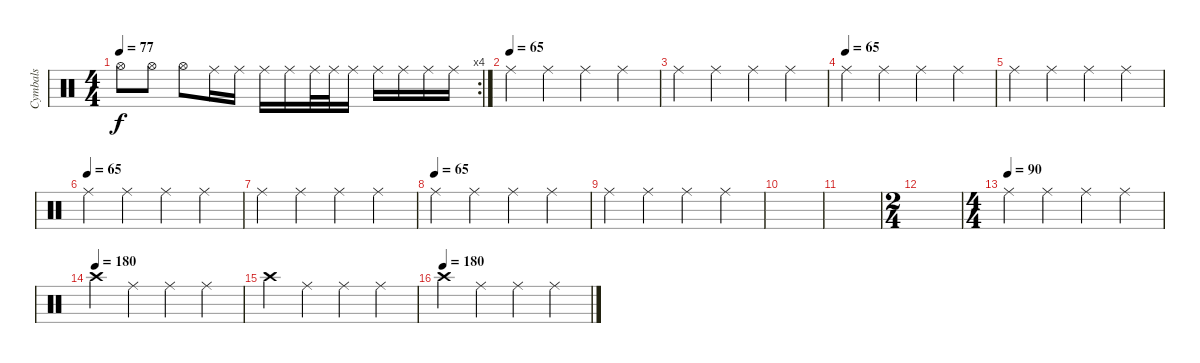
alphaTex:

\track ("Cymbals" "Cymbals") {instrument percussion}
\staff {score}
\articulation defaults
\rc 4
\ts (4 4)
\tempo 77
\clef neutral
\ks c "Hi-Hat (open)".8{dy f} "Hi-Hat (open)".8 "Hi-Hat (open)".8 "Ride (middle)".16 "Ride (middle)".16 "Ride (middle)".16 "Ride (middle)".16 "Ride (middle)".32 "Ride (middle)".32 "Ride (middle)".16 "Ride (middle)".16 "Ride (middle)".16 "Ride (middle)".16 "Ride (middle)".16
|
\tempo (65)
"Ride (middle)".4 "Ride (middle)".4 "Ride (middle)".4 "Ride (middle)".4 |
"Ride (middle)".4 "Ride (middle)".4 "Ride (middle)".4 "Ride (middle)".4 |
\tempo (65)
"Ride (middle)".4 "Ride (middle)".4 "Ride (middle)".4 "Ride (middle)".4 |
"Ride (middle)".4 "Ride (middle)".4 "Ride (middle)".4 "Ride (middle)".4 |
\tempo (65)
"Ride (middle)".4 "Ride (middle)".4 "Ride (middle)".4 "Ride (middle)".4 |
"Ride (middle)".4 "Ride (middle)".4 "Ride (middle)".4 "Ride (middle)".4 |
\tempo (65)
"Ride (middle)".4 "Ride (middle)".4 "Ride (middle)".4 "Ride (middle)".4 |
"Ride (middle)".4 "Ride (middle)".4 "Ride (middle)".4 "Ride (middle)".4 |
|
|
\ts (2 4)
|
\ts (4 4)
\tempo (90)
"Ride (middle)".4 "Ride (middle)".4 "Ride (middle)".4 "Ride (middle)".4 |
\tempo (180)
"Crash high (hit)".4 "Ride (middle)".4 "Ride (middle)".4 "Ride (middle)".4 |
"Crash high (hit)".4 "Ride (middle)".4 "Ride (middle)".4 "Ride (middle)".4 |
\tempo (180)
"Crash high (hit)".4 "Ride (middle)".4 "Ride (middle)".4 "Ride (middle)".4
